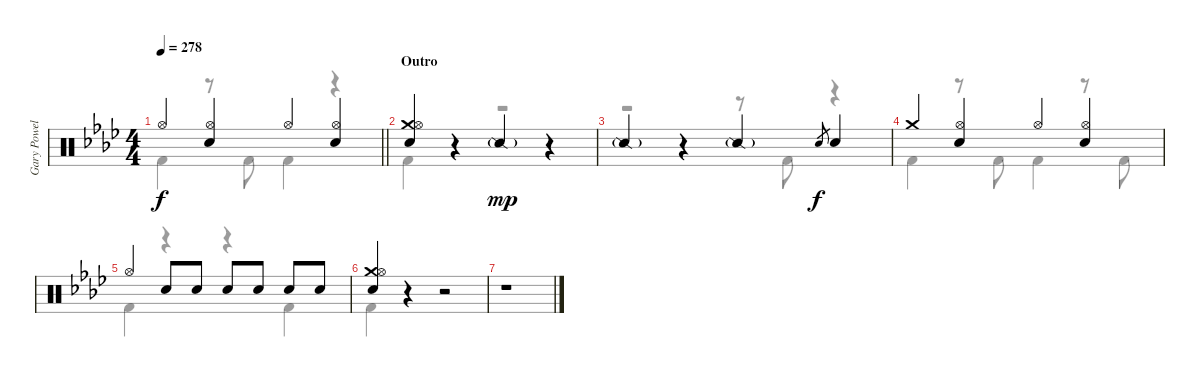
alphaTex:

\track ("Gary Powell" "Gary Powel") {instrument percussion}
\staff {score}
\articulation defaults
\voice
\ts (4 4)
\tempo 278
\clef neutral
\barLineRight lightlight
\ks ab "Hi-Hat (open)".4{dy f}
("Hi-Hat (open)" "Electric Snare (hit)").4 "Hi-Hat (open)".4 ("Hi-Hat (open)" "Electric Snare (hit)").4 |
\section ("" "Outro")
("Crash medium (hit)" "Hi-Hat (open)" "Electric Snare (hit)").4 r.4 "Snare (side stick) 2"{g}.4{dy mp} r.4 |
"Snare (side stick) 2"{g}.4 r.4 "Snare (side stick) 2"{g}.4 "Electric Snare (hit)".8{gr dy f} "Electric Snare (hit)".4 |
"Crash medium (hit)".4 ("Hi-Hat (open)" "Electric Snare (hit)").4 "Hi-Hat (open)".4 ("Hi-Hat (open)" "Electric Snare (hit)").4 |
"Hi-Hat (open)".4 "Electric Snare (hit)".8 "Electric Snare (hit)".8 "Electric Snare (hit)".8 "Electric Snare (hit)".8 "Electric Snare (hit)".8 "Electric Snare (hit)".8 |
("Crash medium (hit)" "Hi-Hat (open)" "Electric Snare (hit)").4 r.4 r.2 |
r.1
\voice
\clef neutral
\ottava regular
\simile none
\barLineRight lightlight
\ks ab "Kick (hit) 2".4{dy f}
r.8 "Kick (hit) 2".8 "Kick (hit) 2".4 r.4 |
"Kick (hit) 2".4 r.4 r.2 |
r.2 r.8 "Kick (hit) 2".8 r.4 |
"Kick (hit) 2".4 r.8 "Kick (hit) 2".8 "Kick (hit) 2".4 r.8 "Kick (hit) 2".8 |
"Kick (hit) 2".4 r.4 r.4 "Kick (hit) 2".4 |
"Kick (hit) 2".4 r.4 r.2 |
r.1
